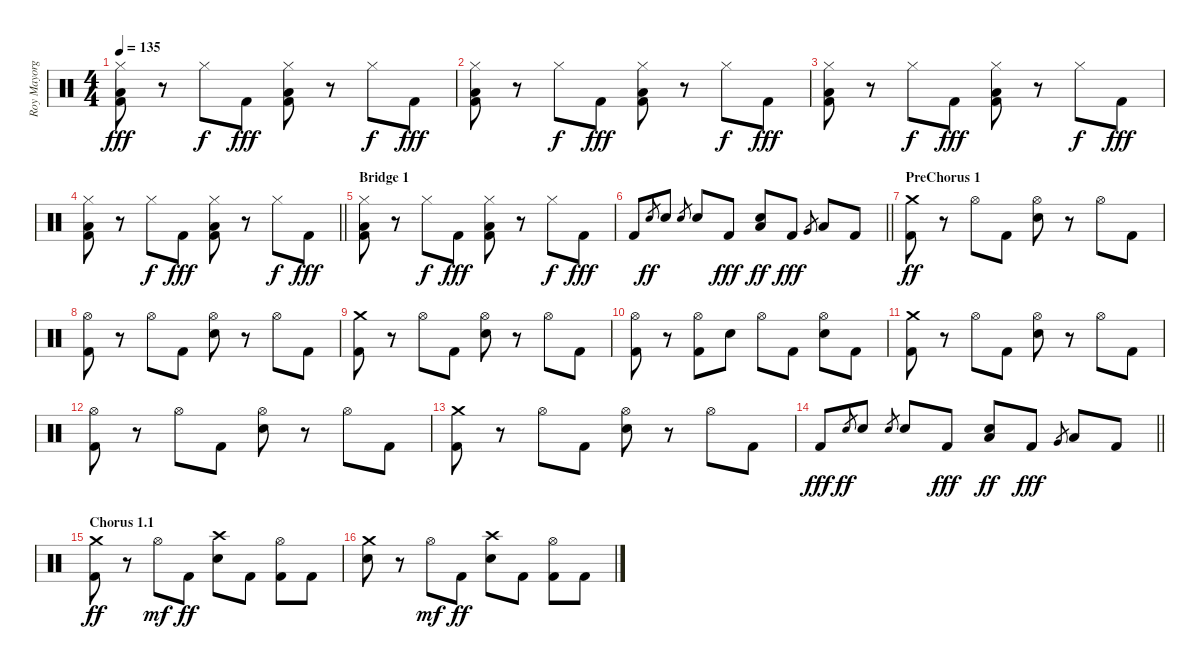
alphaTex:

\track ("Roy Mayorga" "Roy Mayorg") {instrument percussion}
\staff {score}
\articulation defaults
\ts (4 4)
\tempo 135
\clef neutral
\ks c
("Hi-Hat (closed)" "Low Floor Tom (hit)" "Kick (hit) 2").8{dy fff} r.8 "Hi-Hat (closed)".8{dy f} "Kick (hit) 2".8{dy fff} ("Hi-Hat (closed)" "Low Tom (hit)" "Kick (hit) 2").8 r.8 "Hi-Hat (closed)".8{dy f} "Kick (hit) 2".8{dy fff} |
("Hi-Hat (closed)" "Low Floor Tom (hit)" "Kick (hit) 2").8 r.8 "Hi-Hat (closed)".8{dy f} "Kick (hit) 2".8{dy fff} ("Hi-Hat (closed)" "Low Tom (hit)" "Kick (hit) 2").8 r.8 "Hi-Hat (closed)".8{dy f} "Kick (hit) 2".8{dy fff} |
("Hi-Hat (closed)" "Low Floor Tom (hit)" "Kick (hit) 2").8 r.8 "Hi-Hat (closed)".8{dy f} "Kick (hit) 2".8{dy fff} ("Hi-Hat (closed)" "Low Tom (hit)" "Kick (hit) 2").8 r.8 "Hi-Hat (closed)".8{dy f} "Kick (hit) 2".8{dy fff} |
\barLineRight lightlight
("Hi-Hat (closed)" "Low Floor Tom (hit)" "Kick (hit) 2").8 r.8 "Hi-Hat (closed)".8{dy f} "Kick (hit) 2".8{dy fff} ("Hi-Hat (closed)" "Low Tom (hit)" "Kick (hit) 2").8 r.8 "Hi-Hat (closed)".8{dy f} "Kick (hit) 2".8{dy fff} |
\section ("" "Bridge 1")
("Hi-Hat (closed)" "Low Floor Tom (hit)" "Kick (hit) 2").8 r.8 "Hi-Hat (closed)".8{dy f} "Kick (hit) 2".8{dy fff} ("Hi-Hat (closed)" "Low Tom (hit)" "Kick (hit) 2").8 r.8 "Hi-Hat (closed)".8{dy f} "Kick (hit) 2".8{dy fff} |
\barLineRight lightlight "Kick (hit) 2".8 "Electric Snare (hit)".8{gr dy ff} "Electric Snare (hit)".8 "Electric Snare (hit)".8{gr} "Electric Snare (hit)".8 "Kick (hit) 2".8{dy fff}
("Electric Snare (hit)" "Low Floor Tom (hit)").8{dy ff} "Kick (hit) 2".8{dy fff} "Very Low Tom (hit)".8{gr} "Low Tom (hit)".8 "Kick (hit) 2".8 |
\section ("" "PreChorus 1")
("Crash medium (hit)" "Kick (hit) 2").8{dy ff} r.8 "Hi-Hat (open)".8 "Kick (hit) 2".8 ("Hi-Hat (open)" "Electric Snare (hit)").8 r.8 "Hi-Hat (open)".8 "Kick (hit) 2".8 |
("Hi-Hat (open)" "Kick (hit) 2").8 r.8 "Hi-Hat (open)".8 "Kick (hit) 2".8 ("Hi-Hat (open)" "Electric Snare (hit)").8 r.8 "Hi-Hat (open)".8 "Kick (hit) 2".8 |
("Crash medium (hit)" "Kick (hit) 2").8 r.8 "Hi-Hat (open)".8 "Kick (hit) 2".8 ("Hi-Hat (open)" "Electric Snare (hit)").8 r.8 "Hi-Hat (open)".8 "Kick (hit) 2".8 |
("Hi-Hat (open)" "Kick (hit) 2").8 r.8 ("Hi-Hat (open)" "Kick (hit) 2").8 "Electric Snare (hit)".8 "Hi-Hat (open)".8 "Kick (hit) 2".8 ("Hi-Hat (open)" "Electric Snare (hit)").8 "Kick (hit) 2".8 |
("Crash medium (hit)" "Kick (hit) 2").8 r.8 "Hi-Hat (open)".8 "Kick (hit) 2".8 ("Hi-Hat (open)" "Electric Snare (hit)").8 r.8 "Hi-Hat (open)".8 "Kick (hit) 2".8 |
("Hi-Hat (open)" "Kick (hit) 2").8 r.8 "Hi-Hat (open)".8 "Kick (hit) 2".8 ("Hi-Hat (open)" "Electric Snare (hit)").8 r.8 "Hi-Hat (open)".8 "Kick (hit) 2".8 |
("Crash medium (hit)" "Kick (hit) 2").8 r.8 "Hi-Hat (open)".8 "Kick (hit) 2".8 ("Hi-Hat (open)" "Electric Snare (hit)").8 r.8 "Hi-Hat (open)".8 "Kick (hit) 2".8 |
\barLineRight lightlight "Kick (hit) 2".8{dy fff} "Electric Snare (hit)".8{gr dy ff} "Electric Snare (hit)".8 "Electric Snare (hit)".8{gr} "Electric Snare (hit)".8 "Kick (hit) 2".8{dy fff}
("Electric Snare (hit)" "Low Floor Tom (hit)").8{dy ff} "Kick (hit) 2".8{dy fff} "Very Low Tom (hit)".8{gr} "Low Tom (hit)".8 "Kick (hit) 2".8 |
\section ("" "Chorus 1.1")
("Crash medium (hit)" "Kick (hit) 2").8{dy ff} r.8 "Hi-Hat (open)".8{dy mf} "Kick (hit) 2".8{dy ff} ("Crash high (hit)" "Electric Snare (hit)").8 "Kick (hit) 2".8 ("Hi-Hat (open)" "Kick (hit) 2").8 "Kick (hit) 2".8 |
("Crash medium (hit)" "Electric Snare (hit)").8 r.8 "Hi-Hat (open)".8{dy mf} "Kick (hit) 2".8{dy ff} ("Crash high (hit)" "Electric Snare (hit)").8 "Kick (hit) 2".8 ("Hi-Hat (open)" "Kick (hit) 2").8 "Kick (hit) 2".8
